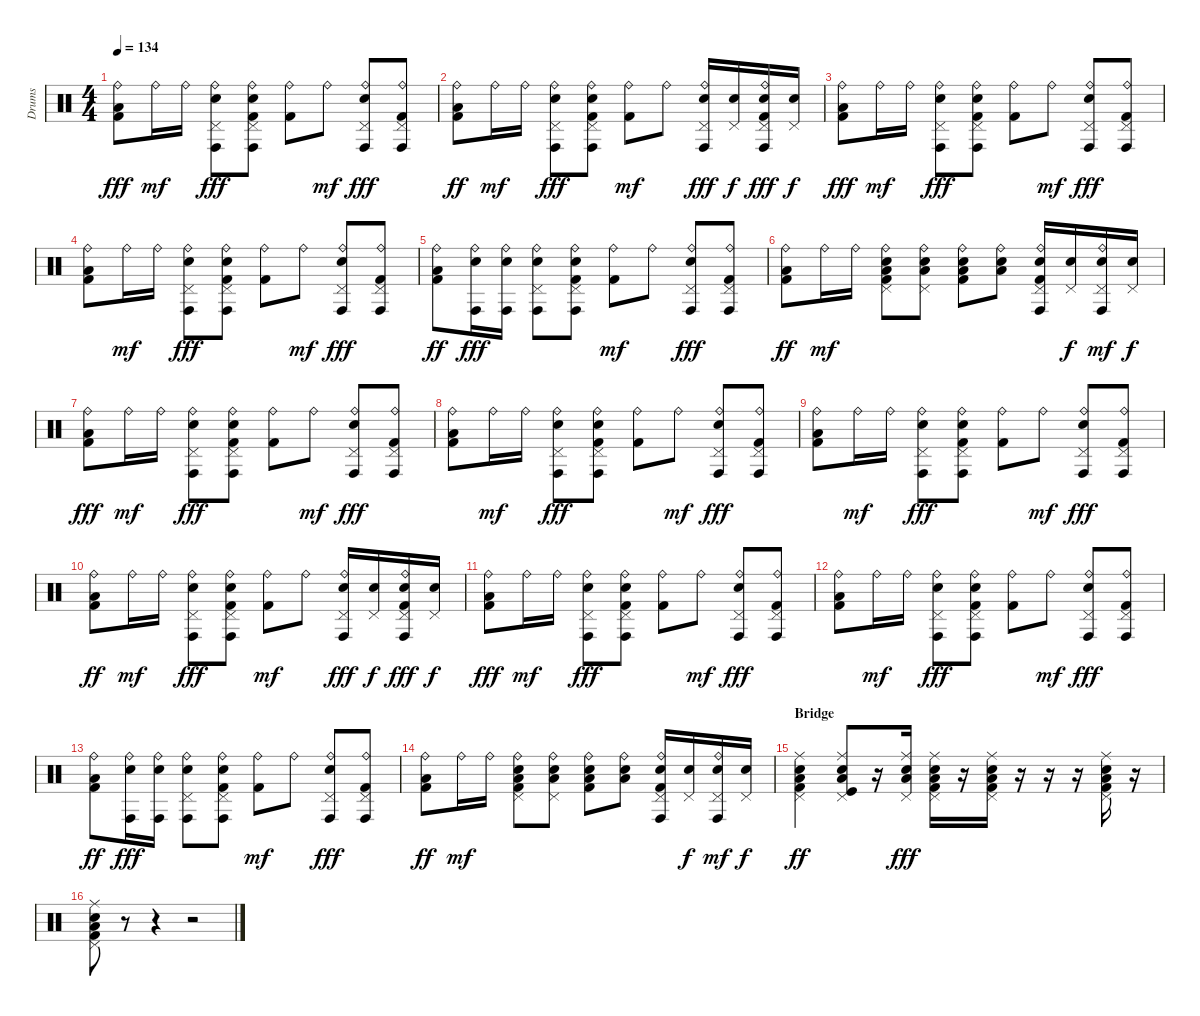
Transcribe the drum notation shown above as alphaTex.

\track ("Drums" "Drums") {instrument percussion}
\staff {score}
\articulation defaults
\ts (4 4)
\tempo 134
\clef neutral
\ks c
("Ride (bell)" "Low Tom (hit)" "Kick (hit) 2").8{dy fff} "Ride (bell)".16{dy mf} "Ride (bell)".16 ("Ride (bell)" "Pedal Hi-Hat (hit)" "Conga high (hit)" "Electric Snare (hit)").8{dy fff} ("Ride (bell)" "Pedal Hi-Hat (hit)" "Conga high (hit)" "Electric Snare (hit)" "Kick (hit) 2").8 ("Ride (bell)" "Kick (hit) 2").8 "Ride (bell)".8{dy mf} ("Ride (bell)" "Pedal Hi-Hat (hit)" "Conga high (hit)" "Electric Snare (hit)").8{dy fff} ("Ride (bell)" "Pedal Hi-Hat (hit)" "Conga high (hit)" "Kick (hit) 2").8 |
("Ride (bell)" "Low Tom (hit)" "Kick (hit) 2").8{dy ff} "Ride (bell)".16{dy mf} "Ride (bell)".16 ("Ride (bell)" "Pedal Hi-Hat (hit)" "Conga high (hit)" "Electric Snare (hit)").8{dy fff} ("Ride (bell)" "Pedal Hi-Hat (hit)" "Conga high (hit)" "Electric Snare (hit)" "Kick (hit) 2").8 ("Ride (bell)" "Kick (hit) 2").8{dy mf} "Ride (bell)".8 ("Ride (bell)" "Pedal Hi-Hat (hit)" "Conga high (hit)" "Electric Snare (hit)").16{dy fff} ("Pedal Hi-Hat (hit)" "Electric Snare (hit)").16{dy f} ("Ride (bell)" "Pedal Hi-Hat (hit)" "Conga high (hit)" "Electric Snare (hit)" "Kick (hit) 2").16{dy fff} ("Pedal Hi-Hat (hit)" "Electric Snare (hit)").16{dy f} |
("Ride (bell)" "Low Tom (hit)" "Kick (hit) 2").8{dy fff} "Ride (bell)".16{dy mf} "Ride (bell)".16 ("Ride (bell)" "Pedal Hi-Hat (hit)" "Conga high (hit)" "Electric Snare (hit)").8{dy fff} ("Ride (bell)" "Pedal Hi-Hat (hit)" "Conga high (hit)" "Electric Snare (hit)" "Kick (hit) 2").8 ("Ride (bell)" "Kick (hit) 2").8 "Ride (bell)".8{dy mf} ("Ride (bell)" "Pedal Hi-Hat (hit)" "Conga high (hit)" "Electric Snare (hit)").8{dy fff} ("Ride (bell)" "Pedal Hi-Hat (hit)" "Conga high (hit)" "Kick (hit) 2").8 |
("Ride (bell)" "Low Tom (hit)" "Kick (hit) 2").8 "Ride (bell)".16{dy mf} "Ride (bell)".16 ("Ride (bell)" "Pedal Hi-Hat (hit)" "Conga high (hit)" "Electric Snare (hit)").8{dy fff} ("Ride (bell)" "Pedal Hi-Hat (hit)" "Conga high (hit)" "Electric Snare (hit)" "Kick (hit) 2").8 ("Ride (bell)" "Kick (hit) 2").8 "Ride (bell)".8{dy mf} ("Ride (bell)" "Pedal Hi-Hat (hit)" "Conga high (hit)" "Electric Snare (hit)").8{dy fff} ("Ride (bell)" "Pedal Hi-Hat (hit)" "Conga high (hit)" "Kick (hit) 2").8 |
("Ride (bell)" "Low Tom (hit)" "Kick (hit) 2").8{dy ff} ("Ride (bell)" "Conga high (hit)" "Electric Snare (hit)").16{dy fff} ("Ride (bell)" "Conga high (hit)" "Electric Snare (hit)").16 ("Ride (bell)" "Pedal Hi-Hat (hit)" "Conga high (hit)" "Electric Snare (hit)").8 ("Ride (bell)" "Pedal Hi-Hat (hit)" "Conga high (hit)" "Electric Snare (hit)" "Kick (hit) 2").8 ("Ride (bell)" "Kick (hit) 2").8{dy mf} "Ride (bell)".8 ("Ride (bell)" "Pedal Hi-Hat (hit)" "Conga high (hit)" "Electric Snare (hit)").8{dy fff} ("Ride (bell)" "Pedal Hi-Hat (hit)" "Conga high (hit)" "Kick (hit) 2").8 |
("Ride (bell)" "Low Tom (hit)" "Kick (hit) 2").8{dy ff} "Ride (bell)".16{dy mf} "Ride (bell)".16 ("Ride (bell)" "Pedal Hi-Hat (hit)" "Low Floor Tom (hit)" "Electric Snare (hit)" "Kick (hit) 2").8 ("Ride (bell)" "Pedal Hi-Hat (hit)" "Low Floor Tom (hit)" "Electric Snare (hit)").8 ("Ride (bell)" "Low Floor Tom (hit)" "Electric Snare (hit)" "Kick (hit) 2").8 ("Ride (bell)" "Low Floor Tom (hit)" "Electric Snare (hit)").8 ("Ride (bell)" "Pedal Hi-Hat (hit)" "Conga high (hit)" "Electric Snare (hit)" "Kick (hit) 2").16 ("Pedal Hi-Hat (hit)" "Electric Snare (hit)").16{dy f} ("Ride (bell)" "Pedal Hi-Hat (hit)" "Conga high (hit)" "Electric Snare (hit)").16{dy mf} ("Pedal Hi-Hat (hit)" "Electric Snare (hit)").16{dy f} |
("Ride (bell)" "Low Tom (hit)" "Kick (hit) 2").8{dy fff} "Ride (bell)".16{dy mf} "Ride (bell)".16 ("Ride (bell)" "Pedal Hi-Hat (hit)" "Conga high (hit)" "Electric Snare (hit)").8{dy fff} ("Ride (bell)" "Pedal Hi-Hat (hit)" "Conga high (hit)" "Electric Snare (hit)" "Kick (hit) 2").8 ("Ride (bell)" "Kick (hit) 2").8 "Ride (bell)".8{dy mf} ("Ride (bell)" "Pedal Hi-Hat (hit)" "Conga high (hit)" "Electric Snare (hit)").8{dy fff} ("Ride (bell)" "Pedal Hi-Hat (hit)" "Conga high (hit)" "Kick (hit) 2").8 |
("Ride (bell)" "Low Tom (hit)" "Kick (hit) 2").8 "Ride (bell)".16{dy mf} "Ride (bell)".16 ("Ride (bell)" "Pedal Hi-Hat (hit)" "Conga high (hit)" "Electric Snare (hit)").8{dy fff} ("Ride (bell)" "Pedal Hi-Hat (hit)" "Conga high (hit)" "Electric Snare (hit)" "Kick (hit) 2").8 ("Ride (bell)" "Kick (hit) 2").8 "Ride (bell)".8{dy mf} ("Ride (bell)" "Pedal Hi-Hat (hit)" "Conga high (hit)" "Electric Snare (hit)").8{dy fff} ("Ride (bell)" "Pedal Hi-Hat (hit)" "Conga high (hit)" "Kick (hit) 2").8 |
("Ride (bell)" "Low Tom (hit)" "Kick (hit) 2").8 "Ride (bell)".16{dy mf} "Ride (bell)".16 ("Ride (bell)" "Pedal Hi-Hat (hit)" "Conga high (hit)" "Electric Snare (hit)").8{dy fff} ("Ride (bell)" "Pedal Hi-Hat (hit)" "Conga high (hit)" "Electric Snare (hit)" "Kick (hit) 2").8 ("Ride (bell)" "Kick (hit) 2").8 "Ride (bell)".8{dy mf} ("Ride (bell)" "Pedal Hi-Hat (hit)" "Conga high (hit)" "Electric Snare (hit)").8{dy fff} ("Ride (bell)" "Pedal Hi-Hat (hit)" "Conga high (hit)" "Kick (hit) 2").8 |
("Ride (bell)" "Low Tom (hit)" "Kick (hit) 2").8{dy ff} "Ride (bell)".16{dy mf} "Ride (bell)".16 ("Ride (bell)" "Pedal Hi-Hat (hit)" "Conga high (hit)" "Electric Snare (hit)").8{dy fff} ("Ride (bell)" "Pedal Hi-Hat (hit)" "Conga high (hit)" "Electric Snare (hit)" "Kick (hit) 2").8 ("Ride (bell)" "Kick (hit) 2").8{dy mf} "Ride (bell)".8 ("Ride (bell)" "Pedal Hi-Hat (hit)" "Conga high (hit)" "Electric Snare (hit)").16{dy fff} ("Pedal Hi-Hat (hit)" "Electric Snare (hit)").16{dy f} ("Ride (bell)" "Pedal Hi-Hat (hit)" "Conga high (hit)" "Electric Snare (hit)" "Kick (hit) 2").16{dy fff} ("Pedal Hi-Hat (hit)" "Electric Snare (hit)").16{dy f} |
("Ride (bell)" "Low Tom (hit)" "Kick (hit) 2").8{dy fff} "Ride (bell)".16{dy mf} "Ride (bell)".16 ("Ride (bell)" "Pedal Hi-Hat (hit)" "Conga high (hit)" "Electric Snare (hit)").8{dy fff} ("Ride (bell)" "Pedal Hi-Hat (hit)" "Conga high (hit)" "Electric Snare (hit)" "Kick (hit) 2").8 ("Ride (bell)" "Kick (hit) 2").8 "Ride (bell)".8{dy mf} ("Ride (bell)" "Pedal Hi-Hat (hit)" "Conga high (hit)" "Electric Snare (hit)").8{dy fff} ("Ride (bell)" "Pedal Hi-Hat (hit)" "Conga high (hit)" "Kick (hit) 2").8 |
("Ride (bell)" "Low Tom (hit)" "Kick (hit) 2").8 "Ride (bell)".16{dy mf} "Ride (bell)".16 ("Ride (bell)" "Pedal Hi-Hat (hit)" "Conga high (hit)" "Electric Snare (hit)").8{dy fff} ("Ride (bell)" "Pedal Hi-Hat (hit)" "Conga high (hit)" "Electric Snare (hit)" "Kick (hit) 2").8 ("Ride (bell)" "Kick (hit) 2").8 "Ride (bell)".8{dy mf} ("Ride (bell)" "Pedal Hi-Hat (hit)" "Conga high (hit)" "Electric Snare (hit)").8{dy fff} ("Ride (bell)" "Pedal Hi-Hat (hit)" "Conga high (hit)" "Kick (hit) 2").8 |
("Ride (bell)" "Low Tom (hit)" "Kick (hit) 2").8{dy ff} ("Ride (bell)" "Conga high (hit)" "Electric Snare (hit)").16{dy fff} ("Ride (bell)" "Conga high (hit)" "Electric Snare (hit)").16 ("Ride (bell)" "Pedal Hi-Hat (hit)" "Conga high (hit)" "Electric Snare (hit)").8 ("Ride (bell)" "Pedal Hi-Hat (hit)" "Conga high (hit)" "Electric Snare (hit)" "Kick (hit) 2").8 ("Ride (bell)" "Kick (hit) 2").8{dy mf} "Ride (bell)".8 ("Ride (bell)" "Pedal Hi-Hat (hit)" "Conga high (hit)" "Electric Snare (hit)").8{dy fff} ("Ride (bell)" "Pedal Hi-Hat (hit)" "Conga high (hit)" "Kick (hit) 2").8 |
("Ride (bell)" "Low Tom (hit)" "Kick (hit) 2").8{dy ff} "Ride (bell)".16{dy mf} "Ride (bell)".16 ("Ride (bell)" "Pedal Hi-Hat (hit)" "Low Floor Tom (hit)" "Electric Snare (hit)" "Kick (hit) 2").8 ("Ride (bell)" "Pedal Hi-Hat (hit)" "Low Floor Tom (hit)" "Electric Snare (hit)").8 ("Ride (bell)" "Low Floor Tom (hit)" "Electric Snare (hit)" "Kick (hit) 2").8 ("Ride (bell)" "Low Floor Tom (hit)" "Electric Snare (hit)").8 ("Ride (bell)" "Pedal Hi-Hat (hit)" "Conga high (hit)" "Electric Snare (hit)" "Kick (hit) 2").16 ("Pedal Hi-Hat (hit)" "Electric Snare (hit)").16{dy f} ("Ride (bell)" "Pedal Hi-Hat (hit)" "Conga high (hit)" "Electric Snare (hit)").16{dy mf} ("Pedal Hi-Hat (hit)" "Electric Snare (hit)").16{dy f} |
\section ("" "Bridge")
("Ride (middle)" "Pedal Hi-Hat (hit)" "Low Floor Tom (hit)" "Electric Snare (hit)" "Kick (hit) 2").4{dy ff} ("Ride (middle)" "Pedal Hi-Hat (hit)" "Low Floor Tom (hit)" "Electric Snare (hit)" "Kick (hit)").8 r.16 ("Ride (middle)" "Pedal Hi-Hat (hit)" "Low Floor Tom (hit)" "Electric Snare (hit)").16{dy fff} ("Ride (middle)" "Pedal Hi-Hat (hit)" "Low Floor Tom (hit)" "Electric Snare (hit)" "Kick (hit) 2").16 r.16 ("Ride (middle)" "Pedal Hi-Hat (hit)" "Low Floor Tom (hit)" "Electric Snare (hit)" "Kick (hit) 2").16 r.16 r.16 r.16 ("Ride (middle)" "Pedal Hi-Hat (hit)" "Low Floor Tom (hit)" "Electric Snare (hit)" "Kick (hit) 2").16 r.16 |
("Ride (middle)" "Pedal Hi-Hat (hit)" "Low Floor Tom (hit)" "Electric Snare (hit)" "Kick (hit) 2").8 r.8 r.4 r.2
